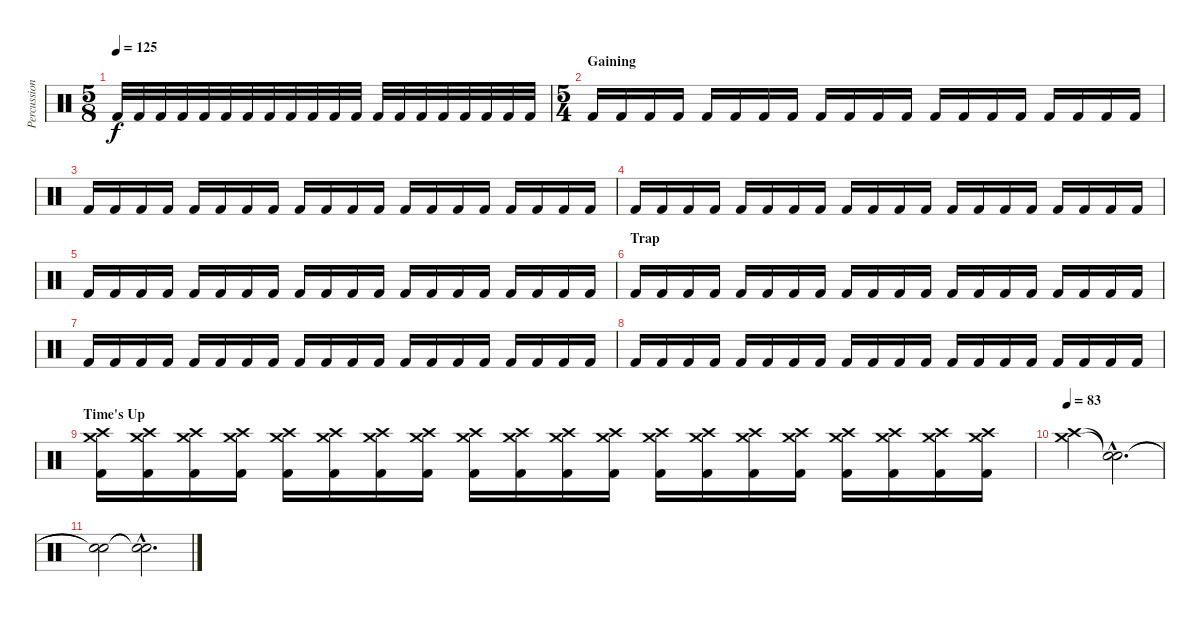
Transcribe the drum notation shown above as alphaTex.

\track ("Percussion" "Percussion") {instrument percussion}
\staff {score}
\articulation defaults
\ts (5 8)
\tempo 125
\clef neutral
\ks c "Kick (hit) 2".32{dy f} "Kick (hit) 2".32 "Kick (hit) 2".32 "Kick (hit) 2".32 "Kick (hit) 2".32 "Kick (hit) 2".32 "Kick (hit) 2".32 "Kick (hit) 2".32 "Kick (hit) 2".32 "Kick (hit) 2".32 "Kick (hit) 2".32 "Kick (hit) 2".32 "Kick (hit) 2".32 "Kick (hit) 2".32 "Kick (hit) 2".32 "Kick (hit) 2".32 "Kick (hit) 2".32 "Kick (hit) 2".32 "Kick (hit) 2".32 "Kick (hit) 2".32
|
\ts (5 4)
\section ("" "Gaining")
"Kick (hit) 2".16 "Kick (hit) 2".16 "Kick (hit) 2".16 "Kick (hit) 2".16 "Kick (hit) 2".16 "Kick (hit) 2".16 "Kick (hit) 2".16 "Kick (hit) 2".16 "Kick (hit) 2".16 "Kick (hit) 2".16 "Kick (hit) 2".16 "Kick (hit) 2".16 "Kick (hit) 2".16 "Kick (hit) 2".16 "Kick (hit) 2".16 "Kick (hit) 2".16 "Kick (hit) 2".16 "Kick (hit) 2".16 "Kick (hit) 2".16 "Kick (hit) 2".16 |
"Kick (hit) 2".16 "Kick (hit) 2".16 "Kick (hit) 2".16 "Kick (hit) 2".16 "Kick (hit) 2".16 "Kick (hit) 2".16 "Kick (hit) 2".16 "Kick (hit) 2".16 "Kick (hit) 2".16 "Kick (hit) 2".16 "Kick (hit) 2".16 "Kick (hit) 2".16 "Kick (hit) 2".16 "Kick (hit) 2".16 "Kick (hit) 2".16 "Kick (hit) 2".16 "Kick (hit) 2".16 "Kick (hit) 2".16 "Kick (hit) 2".16 "Kick (hit) 2".16 |
"Kick (hit) 2".16 "Kick (hit) 2".16 "Kick (hit) 2".16 "Kick (hit) 2".16 "Kick (hit) 2".16 "Kick (hit) 2".16 "Kick (hit) 2".16 "Kick (hit) 2".16 "Kick (hit) 2".16 "Kick (hit) 2".16 "Kick (hit) 2".16 "Kick (hit) 2".16 "Kick (hit) 2".16 "Kick (hit) 2".16 "Kick (hit) 2".16 "Kick (hit) 2".16 "Kick (hit) 2".16 "Kick (hit) 2".16 "Kick (hit) 2".16 "Kick (hit) 2".16 |
"Kick (hit) 2".16 "Kick (hit) 2".16 "Kick (hit) 2".16 "Kick (hit) 2".16 "Kick (hit) 2".16 "Kick (hit) 2".16 "Kick (hit) 2".16 "Kick (hit) 2".16 "Kick (hit) 2".16 "Kick (hit) 2".16 "Kick (hit) 2".16 "Kick (hit) 2".16 "Kick (hit) 2".16 "Kick (hit) 2".16 "Kick (hit) 2".16 "Kick (hit) 2".16 "Kick (hit) 2".16 "Kick (hit) 2".16 "Kick (hit) 2".16 "Kick (hit) 2".16 |
\section ("" "Trap")
"Kick (hit) 2".16 "Kick (hit) 2".16 "Kick (hit) 2".16 "Kick (hit) 2".16 "Kick (hit) 2".16 "Kick (hit) 2".16 "Kick (hit) 2".16 "Kick (hit) 2".16 "Kick (hit) 2".16 "Kick (hit) 2".16 "Kick (hit) 2".16 "Kick (hit) 2".16 "Kick (hit) 2".16 "Kick (hit) 2".16 "Kick (hit) 2".16 "Kick (hit) 2".16 "Kick (hit) 2".16 "Kick (hit) 2".16 "Kick (hit) 2".16 "Kick (hit) 2".16 |
"Kick (hit) 2".16 "Kick (hit) 2".16 "Kick (hit) 2".16 "Kick (hit) 2".16 "Kick (hit) 2".16 "Kick (hit) 2".16 "Kick (hit) 2".16 "Kick (hit) 2".16 "Kick (hit) 2".16 "Kick (hit) 2".16 "Kick (hit) 2".16 "Kick (hit) 2".16 "Kick (hit) 2".16 "Kick (hit) 2".16 "Kick (hit) 2".16 "Kick (hit) 2".16 "Kick (hit) 2".16 "Kick (hit) 2".16 "Kick (hit) 2".16 "Kick (hit) 2".16 |
"Kick (hit) 2".16 "Kick (hit) 2".16 "Kick (hit) 2".16 "Kick (hit) 2".16 "Kick (hit) 2".16 "Kick (hit) 2".16 "Kick (hit) 2".16 "Kick (hit) 2".16 "Kick (hit) 2".16 "Kick (hit) 2".16 "Kick (hit) 2".16 "Kick (hit) 2".16 "Kick (hit) 2".16 "Kick (hit) 2".16 "Kick (hit) 2".16 "Kick (hit) 2".16 "Kick (hit) 2".16 "Kick (hit) 2".16 "Kick (hit) 2".16 "Kick (hit) 2".16 |
\section ("" "Time's Up")
("Crash high (hit)" "Kick (hit) 2" "Crash medium (hit)").16 ("Crash high (hit)" "Kick (hit) 2" "Crash medium (hit)").16 ("Crash high (hit)" "Kick (hit) 2" "Crash medium (hit)").16 ("Crash high (hit)" "Kick (hit) 2" "Crash medium (hit)").16 ("Crash high (hit)" "Kick (hit) 2" "Crash medium (hit)").16 ("Crash high (hit)" "Kick (hit) 2" "Crash medium (hit)").16 ("Crash high (hit)" "Kick (hit) 2" "Crash medium (hit)").16 ("Crash high (hit)" "Kick (hit) 2" "Crash medium (hit)").16 ("Crash high (hit)" "Kick (hit) 2" "Crash medium (hit)").16 ("Crash high (hit)" "Kick (hit) 2" "Crash medium (hit)").16 ("Crash high (hit)" "Kick (hit) 2" "Crash medium (hit)").16 ("Crash high (hit)" "Kick (hit) 2" "Crash medium (hit)").16 ("Crash high (hit)" "Kick (hit) 2" "Crash medium (hit)").16 ("Crash high (hit)" "Kick (hit) 2" "Crash medium (hit)").16 ("Crash high (hit)" "Kick (hit) 2" "Crash medium (hit)").16 ("Crash high (hit)" "Kick (hit) 2" "Crash medium (hit)").16 ("Crash high (hit)" "Kick (hit) 2" "Crash medium (hit)").16 ("Crash high (hit)" "Kick (hit) 2" "Crash medium (hit)").16 ("Crash high (hit)" "Kick (hit) 2" "Crash medium (hit)").16 ("Crash high (hit)" "Kick (hit) 2" "Crash medium (hit)").16 |
\tempo 83
("Crash high (hit)" "Crash medium (hit)").2 ("Snare (hit)"{hac t} "Snare (hit)"{hac t}).2{d} |
("Snare (hit)"{t} "Snare (hit)"{t}).2 ("Snare (hit)"{hac t} "Snare (hit)"{hac t}).2{d}
